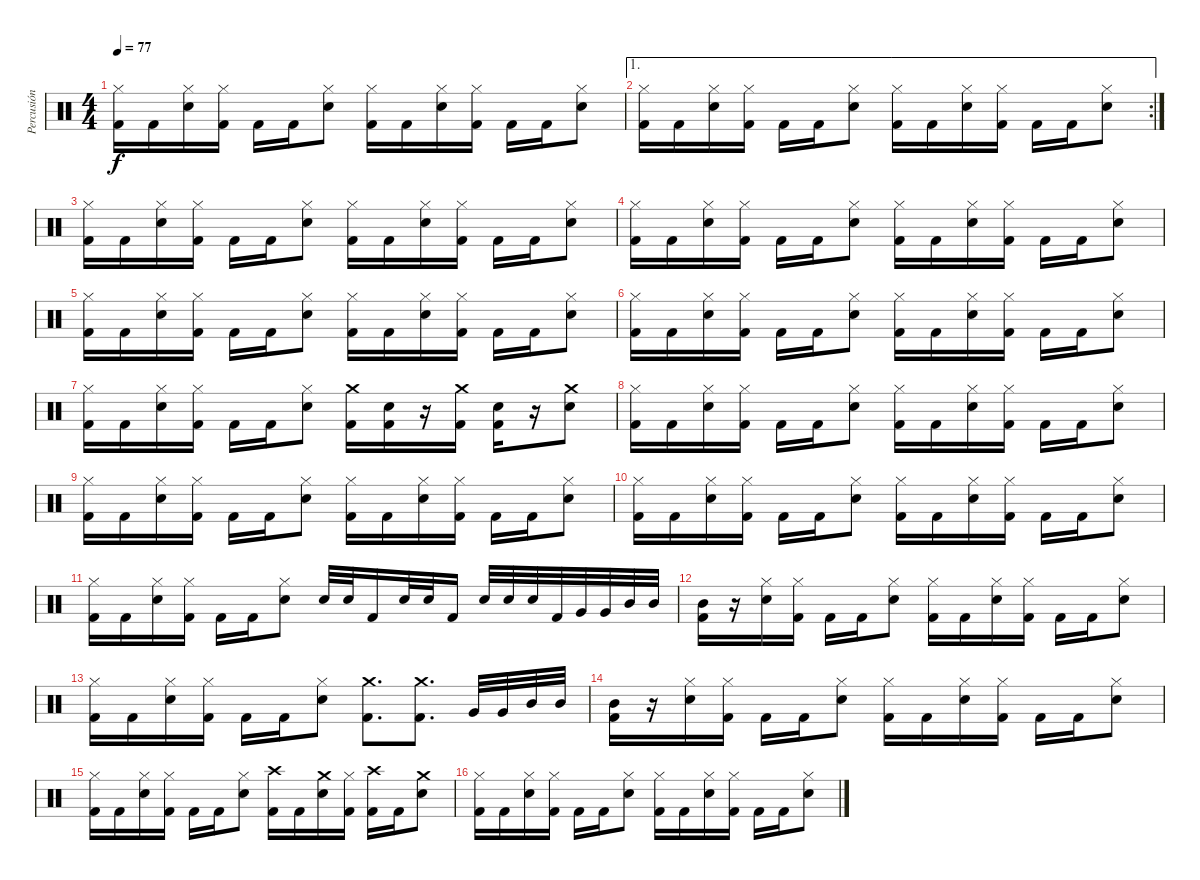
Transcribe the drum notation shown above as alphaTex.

\track ("Percusión" "Percusión") {instrument percussion}
\staff {score}
\articulation defaults
\ts (4 4)
\tempo 77
\clef neutral
\ks c
("Kick (hit) 2" "Hi-Hat (closed)").16{dy f} "Kick (hit) 2".16 ("Electric Snare (hit)" "Hi-Hat (closed)").16 ("Kick (hit) 2" "Hi-Hat (closed)").16 "Kick (hit) 2".16 "Kick (hit) 2".16 ("Electric Snare (hit)" "Hi-Hat (closed)").8 ("Kick (hit) 2" "Hi-Hat (closed)").16 "Kick (hit) 2".16 ("Electric Snare (hit)" "Hi-Hat (closed)").16 ("Kick (hit) 2" "Hi-Hat (closed)").16 "Kick (hit) 2".16 "Kick (hit) 2".16 ("Electric Snare (hit)" "Hi-Hat (closed)").8 |
\ae 1
\rc 2
("Kick (hit) 2" "Hi-Hat (closed)").16 "Kick (hit) 2".16 ("Electric Snare (hit)" "Hi-Hat (closed)").16 ("Kick (hit) 2" "Hi-Hat (closed)").16 "Kick (hit) 2".16 "Kick (hit) 2".16 ("Electric Snare (hit)" "Hi-Hat (closed)").8 ("Kick (hit) 2" "Hi-Hat (closed)").16 "Kick (hit) 2".16 ("Electric Snare (hit)" "Hi-Hat (closed)").16 ("Kick (hit) 2" "Hi-Hat (closed)").16 "Kick (hit) 2".16 "Kick (hit) 2".16 ("Electric Snare (hit)" "Hi-Hat (closed)").8 |
("Kick (hit) 2" "Hi-Hat (closed)").16 "Kick (hit) 2".16 ("Electric Snare (hit)" "Hi-Hat (closed)").16 ("Kick (hit) 2" "Hi-Hat (closed)").16 "Kick (hit) 2".16 "Kick (hit) 2".16 ("Electric Snare (hit)" "Hi-Hat (closed)").8 ("Kick (hit) 2" "Hi-Hat (closed)").16 "Kick (hit) 2".16 ("Electric Snare (hit)" "Hi-Hat (closed)").16 ("Kick (hit) 2" "Hi-Hat (closed)").16 "Kick (hit) 2".16 "Kick (hit) 2".16 ("Electric Snare (hit)" "Hi-Hat (closed)").8 |
("Kick (hit) 2" "Hi-Hat (closed)").16 "Kick (hit) 2".16 ("Electric Snare (hit)" "Hi-Hat (closed)").16 ("Kick (hit) 2" "Hi-Hat (closed)").16 "Kick (hit) 2".16 "Kick (hit) 2".16 ("Electric Snare (hit)" "Hi-Hat (closed)").8 ("Kick (hit) 2" "Hi-Hat (closed)").16 "Kick (hit) 2".16 ("Electric Snare (hit)" "Hi-Hat (closed)").16 ("Kick (hit) 2" "Hi-Hat (closed)").16 "Kick (hit) 2".16 "Kick (hit) 2".16 ("Electric Snare (hit)" "Hi-Hat (closed)").8 |
("Kick (hit) 2" "Hi-Hat (closed)").16 "Kick (hit) 2".16 ("Electric Snare (hit)" "Hi-Hat (closed)").16 ("Kick (hit) 2" "Hi-Hat (closed)").16 "Kick (hit) 2".16 "Kick (hit) 2".16 ("Electric Snare (hit)" "Hi-Hat (closed)").8 ("Kick (hit) 2" "Hi-Hat (closed)").16 "Kick (hit) 2".16 ("Electric Snare (hit)" "Hi-Hat (closed)").16 ("Kick (hit) 2" "Hi-Hat (closed)").16 "Kick (hit) 2".16 "Kick (hit) 2".16 ("Electric Snare (hit)" "Hi-Hat (closed)").8 |
("Kick (hit) 2" "Hi-Hat (closed)").16 "Kick (hit) 2".16 ("Electric Snare (hit)" "Hi-Hat (closed)").16 ("Kick (hit) 2" "Hi-Hat (closed)").16 "Kick (hit) 2".16 "Kick (hit) 2".16 ("Electric Snare (hit)" "Hi-Hat (closed)").8 ("Kick (hit) 2" "Hi-Hat (closed)").16 "Kick (hit) 2".16 ("Electric Snare (hit)" "Hi-Hat (closed)").16 ("Kick (hit) 2" "Hi-Hat (closed)").16 "Kick (hit) 2".16 "Kick (hit) 2".16 ("Electric Snare (hit)" "Hi-Hat (closed)").8 |
("Kick (hit) 2" "Hi-Hat (closed)").16 "Kick (hit) 2".16 ("Electric Snare (hit)" "Hi-Hat (closed)").16 ("Kick (hit) 2" "Hi-Hat (closed)").16 "Kick (hit) 2".16 "Kick (hit) 2".16 ("Electric Snare (hit)" "Hi-Hat (closed)").8 ("Kick (hit) 2" "Crash medium (hit)").16 ("Kick (hit) 2" "Electric Snare (hit)").16 r.16 ("Kick (hit) 2" "Crash medium (hit)").16 ("Kick (hit) 2" "Electric Snare (hit)").16 r.16 ("Electric Snare (hit)" "Crash medium (hit)").8 |
("Kick (hit) 2" "Hi-Hat (closed)").16 "Kick (hit) 2".16 ("Electric Snare (hit)" "Hi-Hat (closed)").16 ("Kick (hit) 2" "Hi-Hat (closed)").16 "Kick (hit) 2".16 "Kick (hit) 2".16 ("Electric Snare (hit)" "Hi-Hat (closed)").8 ("Kick (hit) 2" "Hi-Hat (closed)").16 "Kick (hit) 2".16 ("Electric Snare (hit)" "Hi-Hat (closed)").16 ("Kick (hit) 2" "Hi-Hat (closed)").16 "Kick (hit) 2".16 "Kick (hit) 2".16 ("Electric Snare (hit)" "Hi-Hat (closed)").8 |
("Kick (hit) 2" "Hi-Hat (closed)").16 "Kick (hit) 2".16 ("Electric Snare (hit)" "Hi-Hat (closed)").16 ("Kick (hit) 2" "Hi-Hat (closed)").16 "Kick (hit) 2".16 "Kick (hit) 2".16 ("Electric Snare (hit)" "Hi-Hat (closed)").8 ("Kick (hit) 2" "Hi-Hat (closed)").16 "Kick (hit) 2".16 ("Electric Snare (hit)" "Hi-Hat (closed)").16 ("Kick (hit) 2" "Hi-Hat (closed)").16 "Kick (hit) 2".16 "Kick (hit) 2".16 ("Electric Snare (hit)" "Hi-Hat (closed)").8 |
("Kick (hit) 2" "Hi-Hat (closed)").16 "Kick (hit) 2".16 ("Electric Snare (hit)" "Hi-Hat (closed)").16 ("Kick (hit) 2" "Hi-Hat (closed)").16 "Kick (hit) 2".16 "Kick (hit) 2".16 ("Electric Snare (hit)" "Hi-Hat (closed)").8 ("Kick (hit) 2" "Hi-Hat (closed)").16 "Kick (hit) 2".16 ("Electric Snare (hit)" "Hi-Hat (closed)").16 ("Kick (hit) 2" "Hi-Hat (closed)").16 "Kick (hit) 2".16 "Kick (hit) 2".16 ("Electric Snare (hit)" "Hi-Hat (closed)").8 |
("Kick (hit) 2" "Hi-Hat (closed)").16 "Kick (hit) 2".16 ("Electric Snare (hit)" "Hi-Hat (closed)").16 ("Kick (hit) 2" "Hi-Hat (closed)").16 "Kick (hit) 2".16 "Kick (hit) 2".16 ("Electric Snare (hit)" "Hi-Hat (closed)").8 "Electric Snare (hit)".32 "Electric Snare (hit)".32 "Kick (hit) 2".16 "Electric Snare (hit)".32 "Electric Snare (hit)".32 "Kick (hit) 2".16 "Electric Snare (hit)".32 "Electric Snare (hit)".32 "Electric Snare (hit)".32 "Kick (hit) 2".32 "Very Low Tom (hit)".32 "Very Low Tom (hit)".32 "Mid Tom (hit)".32 "Mid Tom (hit)".32 |
("Kick (hit) 2" "Mid Tom (hit)").16 r.16 ("Electric Snare (hit)" "Hi-Hat (closed)").16 ("Kick (hit) 2" "Hi-Hat (closed)").16 "Kick (hit) 2".16 "Kick (hit) 2".16 ("Electric Snare (hit)" "Hi-Hat (closed)").8 ("Kick (hit) 2" "Hi-Hat (closed)").16 "Kick (hit) 2".16 ("Electric Snare (hit)" "Hi-Hat (closed)").16 ("Kick (hit) 2" "Hi-Hat (closed)").16 "Kick (hit) 2".16 "Kick (hit) 2".16 ("Electric Snare (hit)" "Hi-Hat (closed)").8 |
("Kick (hit) 2" "Hi-Hat (closed)").16 "Kick (hit) 2".16 ("Electric Snare (hit)" "Hi-Hat (closed)").16 ("Kick (hit) 2" "Hi-Hat (closed)").16 "Kick (hit) 2".16 "Kick (hit) 2".16 ("Electric Snare (hit)" "Hi-Hat (closed)").8 ("Kick (hit) 2" "Crash medium (hit)").8{d} ("Kick (hit) 2" "Crash medium (hit)").8{d} "Very Low Tom (hit)".32 "Very Low Tom (hit)".32 "Mid Tom (hit)".32 "Mid Tom (hit)".32 |
("Kick (hit) 2" "Mid Tom (hit)").16 r.16 ("Electric Snare (hit)" "Hi-Hat (closed)").16 ("Kick (hit) 2" "Hi-Hat (closed)").16 "Kick (hit) 2".16 "Kick (hit) 2".16 ("Electric Snare (hit)" "Hi-Hat (closed)").8 ("Kick (hit) 2" "Hi-Hat (closed)").16 "Kick (hit) 2".16 ("Electric Snare (hit)" "Hi-Hat (closed)").16 ("Kick (hit) 2" "Hi-Hat (closed)").16 "Kick (hit) 2".16 "Kick (hit) 2".16 ("Electric Snare (hit)" "Hi-Hat (closed)").8 |
("Kick (hit) 2" "Hi-Hat (closed)").16 "Kick (hit) 2".16 ("Electric Snare (hit)" "Hi-Hat (closed)").16 ("Kick (hit) 2" "Hi-Hat (closed)").16 "Kick (hit) 2".16 "Kick (hit) 2".16 ("Electric Snare (hit)" "Hi-Hat (closed)").8 ("Kick (hit) 2" "Crash high (hit)").16 "Kick (hit) 2".16 ("Electric Snare (hit)" "Crash medium (hit)").16 ("Kick (hit) 2" "Hi-Hat (closed)").16 ("Kick (hit) 2" "Crash high (hit)").16 "Kick (hit) 2".16 ("Electric Snare (hit)" "Crash medium (hit)").8 |
("Kick (hit) 2" "Hi-Hat (closed)").16 "Kick (hit) 2".16 ("Electric Snare (hit)" "Hi-Hat (closed)").16 ("Kick (hit) 2" "Hi-Hat (closed)").16 "Kick (hit) 2".16 "Kick (hit) 2".16 ("Electric Snare (hit)" "Hi-Hat (closed)").8 ("Kick (hit) 2" "Hi-Hat (closed)").16 "Kick (hit) 2".16 ("Electric Snare (hit)" "Hi-Hat (closed)").16 ("Kick (hit) 2" "Hi-Hat (closed)").16 "Kick (hit) 2".16 "Kick (hit) 2".16 ("Electric Snare (hit)" "Hi-Hat (closed)").8
